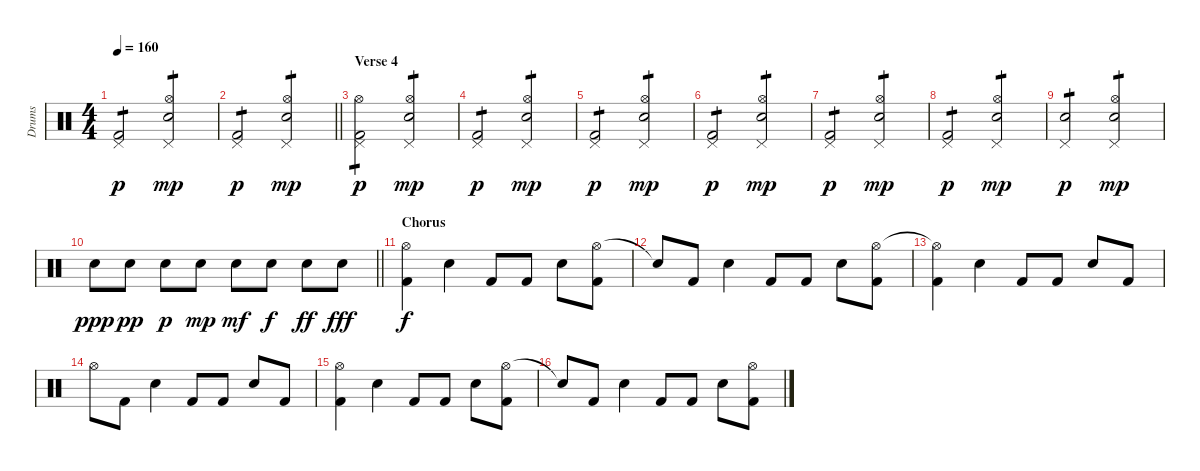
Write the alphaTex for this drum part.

\track ("Drums" "Drums") {instrument percussion}
\staff {score}
\articulation defaults
\ts (4 4)
\tempo 160
\clef neutral
\ks c
("Pedal Hi-Hat (hit)" "Kick (hit) 2").2{tp 1 dy p} ("Pedal Hi-Hat (hit)" "Hi-Hat (open)" "Snare (hit) 2").2{tp 1 dy mp} |
\barLineRight lightlight
("Pedal Hi-Hat (hit)" "Kick (hit) 2").2{tp 1 dy p} ("Pedal Hi-Hat (hit)" "Hi-Hat (open)" "Snare (hit) 2").2{tp 1 dy mp} |
\section ("" "Verse 4")
("Pedal Hi-Hat (hit)" "Hi-Hat (open)" "Kick (hit) 2").2{tp 1 dy p} ("Pedal Hi-Hat (hit)" "Hi-Hat (open)" "Snare (hit) 2").2{tp 1 dy mp} |
("Pedal Hi-Hat (hit)" "Kick (hit) 2").2{tp 1 dy p} ("Pedal Hi-Hat (hit)" "Hi-Hat (open)" "Snare (hit) 2").2{tp 1 dy mp} |
("Pedal Hi-Hat (hit)" "Kick (hit) 2").2{tp 1 dy p} ("Pedal Hi-Hat (hit)" "Hi-Hat (open)" "Snare (hit) 2").2{tp 1 dy mp} |
("Pedal Hi-Hat (hit)" "Kick (hit) 2").2{tp 1 dy p} ("Pedal Hi-Hat (hit)" "Hi-Hat (open)" "Snare (hit) 2").2{tp 1 dy mp} |
("Pedal Hi-Hat (hit)" "Kick (hit) 2").2{tp 1 dy p} ("Pedal Hi-Hat (hit)" "Hi-Hat (open)" "Snare (hit) 2").2{tp 1 dy mp} |
("Pedal Hi-Hat (hit)" "Kick (hit) 2").2{tp 1 dy p} ("Pedal Hi-Hat (hit)" "Hi-Hat (open)" "Snare (hit) 2").2{tp 1 dy mp} |
("Pedal Hi-Hat (hit)" "Snare (hit) 2").2{tp 1 dy p} ("Pedal Hi-Hat (hit)" "Hi-Hat (open)" "Snare (hit) 2").2{tp 1 dy mp} |
\barLineRight lightlight "Snare (hit) 2".8{dy ppp} "Snare (hit) 2".8{dy pp} "Snare (hit) 2".8{dy p} "Snare (hit) 2".8{dy mp} "Snare (hit) 2".8{dy mf} "Snare (hit) 2".8{dy f} "Snare (hit) 2".8{dy ff} "Snare (hit) 2".8{dy fff}
|
\section ("" "Chorus")
("Hi-Hat (open)" "Kick (hit) 2").4{dy f} "Snare (hit) 2".4 "Kick (hit) 2".8 "Kick (hit) 2".8 "Snare (hit) 2".8 ("Hi-Hat (open)" "Kick (hit) 2").8 |
"Snare (hit)"{t}.8 "Kick (hit) 2".8 "Snare (hit) 2".4 "Kick (hit) 2".8 "Kick (hit) 2".8 "Snare (hit) 2".8 ("Hi-Hat (open)" "Kick (hit) 2").8 |
("Hi-Hat (open)"{t} "Kick (hit) 2").4 "Snare (hit) 2".4 "Kick (hit) 2".8 "Kick (hit) 2".8 "Snare (hit) 2".8 "Kick (hit) 2".8 |
"Hi-Hat (open)".8 "Kick (hit) 2".8 "Snare (hit) 2".4 "Kick (hit) 2".8 "Kick (hit) 2".8 "Snare (hit) 2".8 "Kick (hit) 2".8 |
("Hi-Hat (open)" "Kick (hit) 2").4 "Snare (hit) 2".4 "Kick (hit) 2".8 "Kick (hit) 2".8 "Snare (hit) 2".8 ("Hi-Hat (open)" "Kick (hit) 2").8 |
"Snare (hit)"{t}.8 "Kick (hit) 2".8 "Snare (hit) 2".4 "Kick (hit) 2".8 "Kick (hit) 2".8 "Snare (hit) 2".8 ("Hi-Hat (open)" "Kick (hit) 2").8
